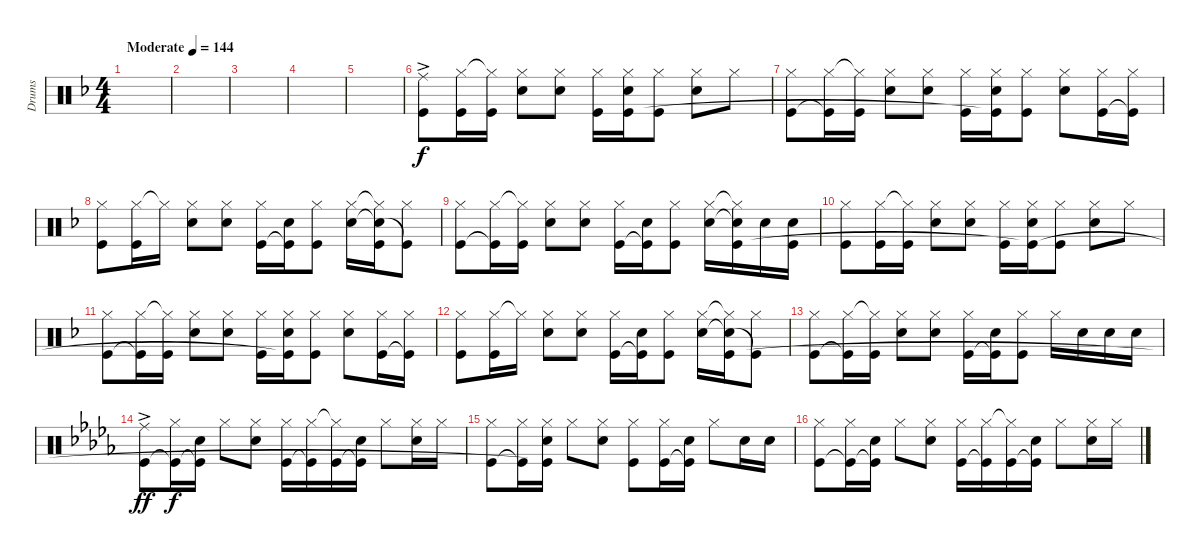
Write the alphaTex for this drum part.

\track ("Drums" "Drums") {instrument percussion}
\staff {score}
\articulation defaults
\ts (4 4)
\tempo (144 "Moderate")
\clef neutral
\ks f
|
|
|
|
|
("Ride (middle)"{ac} "Kick (hit)").8 ("Hi-Hat (closed)" "Kick (hit)").16{dy f} ("Hi-Hat (closed)"{t} "Kick (hit)").16 ("Hi-Hat (closed)" "Snare (hit) 2").8 ("Hi-Hat (closed)" "Snare (hit) 2").8 ("Hi-Hat (closed)" "Kick (hit)").16 ("Hi-Hat (closed)" "Snare (hit) 2" "Kick (hit)").16 ("Hi-Hat (closed)" "Kick (hit)").8 ("Hi-Hat (closed)" "Snare (hit) 2").8 "Hi-Hat (closed)".8 |
("Hi-Hat (closed)" "Kick (hit)").8 ("Hi-Hat (closed)" "Kick (hit)"{t}).16 ("Hi-Hat (closed)"{t} "Kick (hit)").16 ("Hi-Hat (closed)" "Snare (hit) 2").8 ("Hi-Hat (closed)" "Snare (hit) 2").8 ("Hi-Hat (closed)" "Kick (hit)").16 ("Hi-Hat (closed)" "Snare (hit) 2" "Kick (hit)"{t}).16 ("Hi-Hat (closed)" "Kick (hit)").8 ("Hi-Hat (closed)" "Snare (hit) 2").8 ("Hi-Hat (closed)" "Kick (hit)").16 ("Hi-Hat (closed)" "Kick (hit)"{t}).16 |
("Hi-Hat (closed)" "Kick (hit)").8 ("Hi-Hat (closed)" "Kick (hit)").16 "Hi-Hat (closed)"{t}.16 ("Hi-Hat (closed)" "Snare (hit) 2").8 ("Hi-Hat (closed)" "Snare (hit) 2").8 ("Hi-Hat (closed)" "Kick (hit)").16 ("Snare (hit) 2" "Kick (hit)"{t}).16 ("Hi-Hat (closed)" "Kick (hit)").8 ("Hi-Hat (closed)" "Snare (hit) 2").16 ("Hi-Hat (closed)"{t} "Snare (hit) 2"{t} "Kick (hit)").16 ("Hi-Hat (closed)" "Kick (hit)"{t}).8 |
("Hi-Hat (closed)" "Kick (hit)").8 ("Hi-Hat (closed)" "Kick (hit)"{t}).16 ("Hi-Hat (closed)"{t} "Kick (hit)").16 ("Hi-Hat (closed)" "Snare (hit) 2").8 ("Hi-Hat (closed)" "Snare (hit) 2").8 ("Hi-Hat (closed)" "Kick (hit)").16 ("Snare (hit) 2" "Kick (hit)"{t}).16 ("Hi-Hat (closed)" "Kick (hit)").8 ("Hi-Hat (closed)" "Snare (hit) 2").16 ("Hi-Hat (closed)"{t} "Snare (hit) 2"{t} "Kick (hit)").16 "Snare (hit) 2".16 ("Snare (hit) 2" "Kick (hit)").16 |
("Hi-Hat (closed)" "Kick (hit)").8 ("Hi-Hat (closed)" "Kick (hit)").16 ("Hi-Hat (closed)"{t} "Kick (hit)").16 ("Hi-Hat (closed)" "Snare (hit) 2").8 ("Hi-Hat (closed)" "Snare (hit) 2").8 ("Hi-Hat (closed)" "Kick (hit)").16 ("Hi-Hat (closed)" "Snare (hit) 2" "Kick (hit)"{t}).16 ("Hi-Hat (closed)" "Kick (hit)").8 ("Hi-Hat (closed)" "Snare (hit) 2").8 "Hi-Hat (closed)".8 |
("Hi-Hat (closed)" "Kick (hit)").8 ("Hi-Hat (closed)" "Kick (hit)"{t}).16 ("Hi-Hat (closed)"{t} "Kick (hit)").16 ("Hi-Hat (closed)" "Snare (hit) 2").8 ("Hi-Hat (closed)" "Snare (hit) 2").8 ("Hi-Hat (closed)" "Kick (hit)").16 ("Hi-Hat (closed)" "Snare (hit) 2" "Kick (hit)"{t}).16 ("Hi-Hat (closed)" "Kick (hit)").8 ("Hi-Hat (closed)" "Snare (hit) 2").8 ("Hi-Hat (closed)" "Kick (hit)").16 ("Hi-Hat (closed)" "Kick (hit)"{t}).16 |
("Hi-Hat (closed)" "Kick (hit)").8 ("Hi-Hat (closed)" "Kick (hit)").16 "Hi-Hat (closed)"{t}.16 ("Hi-Hat (closed)" "Snare (hit) 2").8 ("Hi-Hat (closed)" "Snare (hit) 2").8 ("Hi-Hat (closed)" "Kick (hit)").16 ("Snare (hit) 2" "Kick (hit)"{t}).16 ("Hi-Hat (closed)" "Kick (hit)").8 ("Hi-Hat (closed)" "Snare (hit) 2").16 ("Hi-Hat (closed)"{t} "Snare (hit) 2"{t} "Kick (hit)").16 ("Hi-Hat (closed)" "Kick (hit)"{t}).8 |
("Hi-Hat (closed)" "Kick (hit)").8 ("Hi-Hat (closed)" "Kick (hit)"{t}).16 ("Hi-Hat (closed)"{t} "Kick (hit)").16 ("Hi-Hat (closed)" "Snare (hit) 2").8 ("Hi-Hat (closed)" "Snare (hit) 2").8 ("Hi-Hat (closed)" "Kick (hit)").16 ("Snare (hit) 2" "Kick (hit)"{t}).16 ("Hi-Hat (closed)" "Kick (hit)").8 "Hi-Hat (closed)".16 "Snare (hit) 2".16 "Snare (hit) 2".16 "Snare (hit) 2".16 |
\ks db
("Ride (middle)"{ac} "Kick (hit)").8{dy ff} ("Hi-Hat (closed)" "Kick (hit)"{t}).16{dy f} ("Snare (hit) 2" "Kick (hit)"{t}).16 "Hi-Hat (closed)".8 ("Hi-Hat (closed)" "Snare (hit) 2").8 ("Hi-Hat (closed)" "Kick (hit)").16 ("Hi-Hat (closed)" "Kick (hit)"{t}).16 ("Hi-Hat (closed)"{t} "Kick (hit)").16 ("Snare (hit) 2" "Kick (hit)"{t}).16 "Hi-Hat (closed)".8 ("Hi-Hat (closed)" "Snare (hit) 2").16 "Hi-Hat (closed)".16 |
("Hi-Hat (closed)" "Kick (hit)").8 ("Hi-Hat (closed)" "Kick (hit)"{t}).16 ("Hi-Hat (closed)" "Snare (hit) 2" "Kick (hit)"{t}).16 "Hi-Hat (closed)".8 ("Hi-Hat (closed)" "Snare (hit) 2").8 ("Hi-Hat (closed)" "Kick (hit)").8 ("Hi-Hat (closed)" "Kick (hit)").16 ("Snare (hit) 2" "Kick (hit)"{t}).16 "Hi-Hat (closed)".8 "Snare (hit) 2".16 "Snare (hit) 2".16 |
("Hi-Hat (closed)" "Kick (hit)").8 ("Hi-Hat (closed)" "Kick (hit)"{t}).16 ("Snare (hit) 2" "Kick (hit)"{t}).16 "Hi-Hat (closed)".8 ("Hi-Hat (closed)" "Snare (hit) 2").8 ("Hi-Hat (closed)" "Kick (hit)").16 ("Hi-Hat (closed)" "Kick (hit)"{t}).16 ("Hi-Hat (closed)"{t} "Kick (hit)").16 ("Snare (hit) 2" "Kick (hit)"{t}).16 "Hi-Hat (closed)".8 ("Hi-Hat (closed)" "Snare (hit) 2").16 "Hi-Hat (closed)".16
